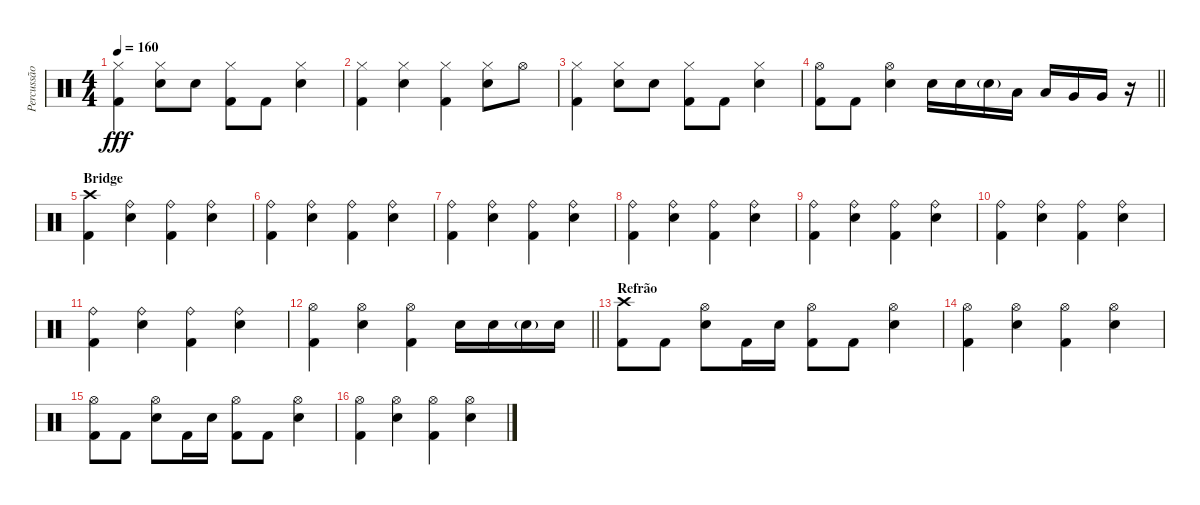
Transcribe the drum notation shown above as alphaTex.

\track ("Percussão" "Percussão") {instrument percussion}
\staff {score}
\articulation defaults
\ts (4 4)
\tempo 160
\clef neutral
\ks c
("Hi-Hat (closed)" "Kick (hit) 2").4{dy fff} ("Hi-Hat (closed)" "Electric Snare (hit)").8 "Electric Snare (hit)".8 ("Hi-Hat (closed)" "Kick (hit) 2").8 "Kick (hit) 2".8 ("Hi-Hat (closed)" "Electric Snare (hit)").4 |
("Hi-Hat (closed)" "Kick (hit) 2").4 ("Hi-Hat (closed)" "Electric Snare (hit)").4 ("Hi-Hat (closed)" "Kick (hit) 2").4 ("Hi-Hat (closed)" "Electric Snare (hit)").8 "Hi-Hat (open)".8 |
("Hi-Hat (closed)" "Kick (hit) 2").4 ("Hi-Hat (closed)" "Electric Snare (hit)").8 "Electric Snare (hit)".8 ("Hi-Hat (closed)" "Kick (hit) 2").8 "Kick (hit) 2".8 ("Hi-Hat (closed)" "Electric Snare (hit)").4 |
\barLineRight lightlight
("Hi-Hat (open)" "Kick (hit) 2").8 "Kick (hit) 2".8 ("Hi-Hat (open)" "Electric Snare (hit)").4 "Electric Snare (hit)".16 "Electric Snare (hit)".16 "Electric Snare (hit)"{g}.16 "Low Tom (hit)".16 "Low Tom (hit)".16 "Very Low Tom (hit)".16 "Very Low Tom (hit)".16 r.16 |
\section ("" "Bridge")
("Crash high (hit)" "Kick (hit) 2").4 ("Ride (bell)" "Electric Snare (hit)").4 ("Ride (bell)" "Kick (hit) 2").4 ("Ride (bell)" "Electric Snare (hit)").4 |
("Ride (bell)" "Kick (hit) 2").4 ("Ride (bell)" "Electric Snare (hit)").4 ("Ride (bell)" "Kick (hit) 2").4 ("Ride (bell)" "Electric Snare (hit)").4 |
("Ride (bell)" "Kick (hit) 2").4 ("Ride (bell)" "Electric Snare (hit)").4 ("Ride (bell)" "Kick (hit) 2").4 ("Ride (bell)" "Electric Snare (hit)").4 |
("Ride (bell)" "Kick (hit) 2").4 ("Ride (bell)" "Electric Snare (hit)").4 ("Ride (bell)" "Kick (hit) 2").4 ("Ride (bell)" "Electric Snare (hit)").4 |
("Ride (bell)" "Kick (hit) 2").4 ("Ride (bell)" "Electric Snare (hit)").4 ("Ride (bell)" "Kick (hit) 2").4 ("Ride (bell)" "Electric Snare (hit)").4 |
("Ride (bell)" "Kick (hit) 2").4 ("Ride (bell)" "Electric Snare (hit)").4 ("Ride (bell)" "Kick (hit) 2").4 ("Ride (bell)" "Electric Snare (hit)").4 |
("Ride (bell)" "Kick (hit) 2").4 ("Ride (bell)" "Electric Snare (hit)").4 ("Ride (bell)" "Kick (hit) 2").4 ("Ride (bell)" "Electric Snare (hit)").4 |
\barLineRight lightlight
("Hi-Hat (open)" "Kick (hit) 2").4 ("Hi-Hat (open)" "Electric Snare (hit)").4 ("Hi-Hat (open)" "Kick (hit) 2").4 "Electric Snare (hit)".16 "Electric Snare (hit)".16 "Electric Snare (hit)"{g}.16 "Electric Snare (hit)".16 |
\section ("" "Refrão")
("Crash high (hit)" "Kick (hit) 2").8 "Kick (hit) 2".8 ("Hi-Hat (open)" "Electric Snare (hit)").8 "Kick (hit) 2".16 "Electric Snare (hit)".16 ("Hi-Hat (open)" "Kick (hit) 2").8 "Kick (hit) 2".8 ("Hi-Hat (open)" "Electric Snare (hit)").4 |
("Hi-Hat (open)" "Kick (hit) 2").4 ("Hi-Hat (open)" "Electric Snare (hit)").4 ("Hi-Hat (open)" "Kick (hit) 2").4 ("Hi-Hat (open)" "Electric Snare (hit)").4 |
("Hi-Hat (open)" "Kick (hit) 2").8 "Kick (hit) 2".8 ("Hi-Hat (open)" "Electric Snare (hit)").8 "Kick (hit) 2".16 "Electric Snare (hit)".16 ("Hi-Hat (open)" "Kick (hit) 2").8 "Kick (hit) 2".8 ("Hi-Hat (open)" "Electric Snare (hit)").4 |
("Hi-Hat (open)" "Kick (hit) 2").4 ("Hi-Hat (open)" "Electric Snare (hit)").4 ("Hi-Hat (open)" "Kick (hit) 2").4 ("Hi-Hat (open)" "Electric Snare (hit)").4
